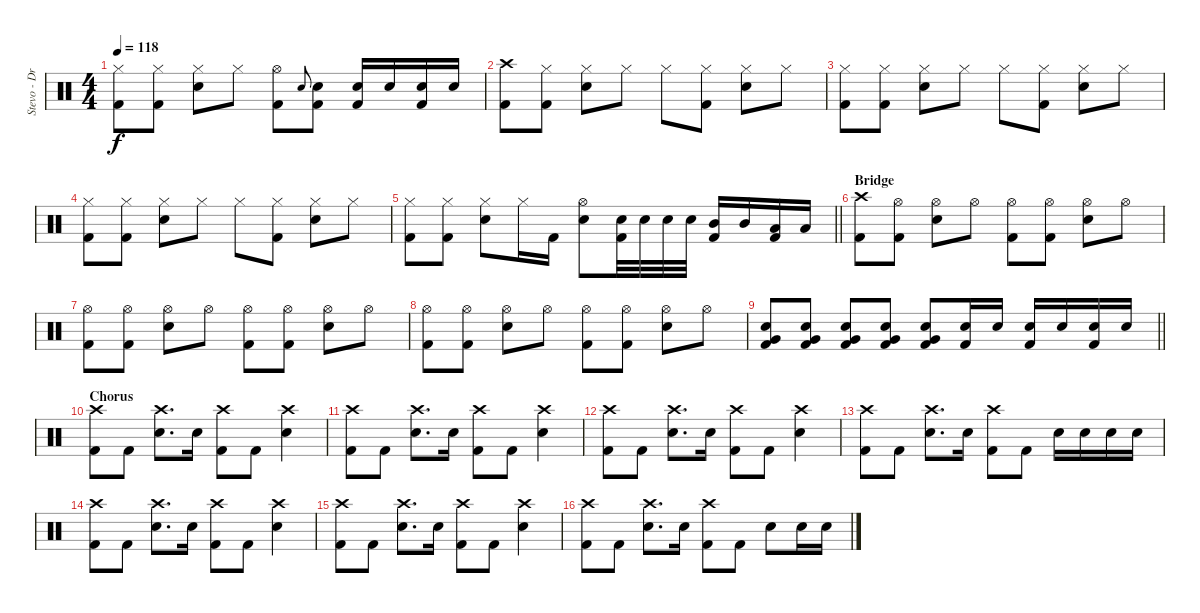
\track ("Stevo - Drums" "Stevo - Dr") {instrument percussion}
\staff {score}
\articulation defaults
\ts (4 4)
\tempo 118
\clef neutral
\ks c
("Hi-Hat (closed)" "Kick (hit) 2").8{dy f} ("Hi-Hat (closed)" "Kick (hit) 2").8 ("Hi-Hat (closed)" "Snare (hit) 2").8 "Hi-Hat (closed)".8 ("Hi-Hat (open)" "Kick (hit) 2").8 "Snare (hit) 2".8{gr onbeat} ("Snare (hit) 2" "Kick (hit) 2").8 ("Snare (hit) 2" "Kick (hit) 2").16 "Snare (hit) 2".16 ("Snare (hit) 2" "Kick (hit) 2").16 "Snare (hit) 2".16 |
("Crash high (hit)" "Kick (hit) 2").8 ("Hi-Hat (closed)" "Kick (hit) 2").8 ("Hi-Hat (closed)" "Snare (hit) 2").8 "Hi-Hat (closed)".8 "Hi-Hat (closed)".8 ("Hi-Hat (closed)" "Kick (hit) 2").8 ("Hi-Hat (closed)" "Snare (hit) 2").8 "Hi-Hat (closed)".8 |
("Hi-Hat (closed)" "Kick (hit) 2").8 ("Hi-Hat (closed)" "Kick (hit) 2").8 ("Hi-Hat (closed)" "Snare (hit) 2").8 "Hi-Hat (closed)".8 "Hi-Hat (closed)".8 ("Hi-Hat (closed)" "Kick (hit) 2").8 ("Hi-Hat (closed)" "Snare (hit) 2").8 "Hi-Hat (closed)".8 |
("Hi-Hat (closed)" "Kick (hit) 2").8 ("Hi-Hat (closed)" "Kick (hit) 2").8 ("Hi-Hat (closed)" "Snare (hit) 2").8 "Hi-Hat (closed)".8 "Hi-Hat (closed)".8 ("Hi-Hat (closed)" "Kick (hit) 2").8 ("Hi-Hat (closed)" "Snare (hit) 2").8 "Hi-Hat (closed)".8 |
\barLineRight lightlight
("Hi-Hat (closed)" "Kick (hit) 2").8 ("Hi-Hat (closed)" "Kick (hit) 2").8 ("Hi-Hat (closed)" "Snare (hit) 2").8 "Hi-Hat (closed)".16 "Kick (hit) 2".16 ("Hi-Hat (open)" "Snare (hit) 2").8 ("Snare (hit) 2" "Kick (hit) 2").32 "Snare (hit) 2".32 "Snare (hit) 2".32 "Snare (hit) 2".32 ("Mid Tom (hit)" "Kick (hit) 2").16 "Mid Tom (hit)".16 ("Low Tom (hit)" "Kick (hit) 2").16 "Low Tom (hit)".16 |
\section ("" "Bridge")
("Crash high (hit)" "Kick (hit) 2").8 ("Hi-Hat (open)" "Kick (hit) 2").8 ("Hi-Hat (open)" "Snare (hit) 2").8 "Hi-Hat (open)".8 ("Hi-Hat (open)" "Kick (hit) 2").8 ("Hi-Hat (open)" "Kick (hit) 2").8 ("Hi-Hat (open)" "Snare (hit) 2").8 "Hi-Hat (open)".8 |
("Hi-Hat (open)" "Kick (hit) 2").8 ("Hi-Hat (open)" "Kick (hit) 2").8 ("Hi-Hat (open)" "Snare (hit) 2").8 "Hi-Hat (open)".8 ("Hi-Hat (open)" "Kick (hit) 2").8 ("Hi-Hat (open)" "Kick (hit) 2").8 ("Hi-Hat (open)" "Snare (hit) 2").8 "Hi-Hat (open)".8 |
("Hi-Hat (open)" "Kick (hit) 2").8 ("Hi-Hat (open)" "Kick (hit) 2").8 ("Hi-Hat (open)" "Snare (hit) 2").8 "Hi-Hat (open)".8 ("Hi-Hat (open)" "Kick (hit) 2").8 ("Hi-Hat (open)" "Kick (hit) 2").8 ("Hi-Hat (open)" "Snare (hit) 2").8 "Hi-Hat (open)".8 |
\barLineRight lightlight
("Snare (hit) 2" "Very Low Tom (hit)" "Kick (hit) 2").8 ("Snare (hit) 2" "Very Low Tom (hit)" "Kick (hit) 2").8 ("Snare (hit) 2" "Very Low Tom (hit)" "Kick (hit) 2").8 ("Snare (hit) 2" "Very Low Tom (hit)" "Kick (hit) 2").8 ("Snare (hit) 2" "Very Low Tom (hit)" "Kick (hit) 2").8 ("Snare (hit) 2" "Kick (hit) 2").16 "Snare (hit) 2".16 ("Snare (hit) 2" "Kick (hit) 2").16 "Snare (hit) 2".16 ("Snare (hit) 2" "Kick (hit) 2").16 "Snare (hit) 2".16 |
\section ("" "Chorus")
("Crash high (hit)" "Kick (hit) 2").8 "Kick (hit) 2".8 ("Crash high (hit)" "Snare (hit) 2").8{d} "Snare (hit) 2".16 ("Crash high (hit)" "Kick (hit) 2").8 "Kick (hit) 2".8 ("Crash high (hit)" "Snare (hit) 2").4 |
("Crash high (hit)" "Kick (hit) 2").8 "Kick (hit) 2".8 ("Crash high (hit)" "Snare (hit) 2").8{d} "Snare (hit) 2".16 ("Crash high (hit)" "Kick (hit) 2").8 "Kick (hit) 2".8 ("Crash high (hit)" "Snare (hit) 2").4 |
("Crash high (hit)" "Kick (hit) 2").8 "Kick (hit) 2".8 ("Crash high (hit)" "Snare (hit) 2").8{d} "Snare (hit) 2".16 ("Crash high (hit)" "Kick (hit) 2").8 "Kick (hit) 2".8 ("Crash high (hit)" "Snare (hit) 2").4 |
("Crash high (hit)" "Kick (hit) 2").8 "Kick (hit) 2".8 ("Crash high (hit)" "Snare (hit) 2").8{d} "Snare (hit) 2".16 ("Crash high (hit)" "Kick (hit) 2").8 "Kick (hit) 2".8 "Snare (hit) 2".16 "Snare (hit) 2".16 "Snare (hit) 2".16 "Snare (hit) 2".16 |
("Crash high (hit)" "Kick (hit) 2").8 "Kick (hit) 2".8 ("Crash high (hit)" "Snare (hit) 2").8{d} "Snare (hit) 2".16 ("Crash high (hit)" "Kick (hit) 2").8 "Kick (hit) 2".8 ("Crash high (hit)" "Snare (hit) 2").4 |
("Crash high (hit)" "Kick (hit) 2").8 "Kick (hit) 2".8 ("Crash high (hit)" "Snare (hit) 2").8{d} "Snare (hit) 2".16 ("Crash high (hit)" "Kick (hit) 2").8 "Kick (hit) 2".8 ("Crash high (hit)" "Snare (hit) 2").4 |
("Crash high (hit)" "Kick (hit) 2").8 "Kick (hit) 2".8 ("Crash high (hit)" "Snare (hit) 2").8{d} "Snare (hit) 2".16 ("Crash high (hit)" "Kick (hit) 2").8 "Kick (hit) 2".8 "Snare (hit) 2".8 "Snare (hit) 2".16 "Snare (hit) 2".16
